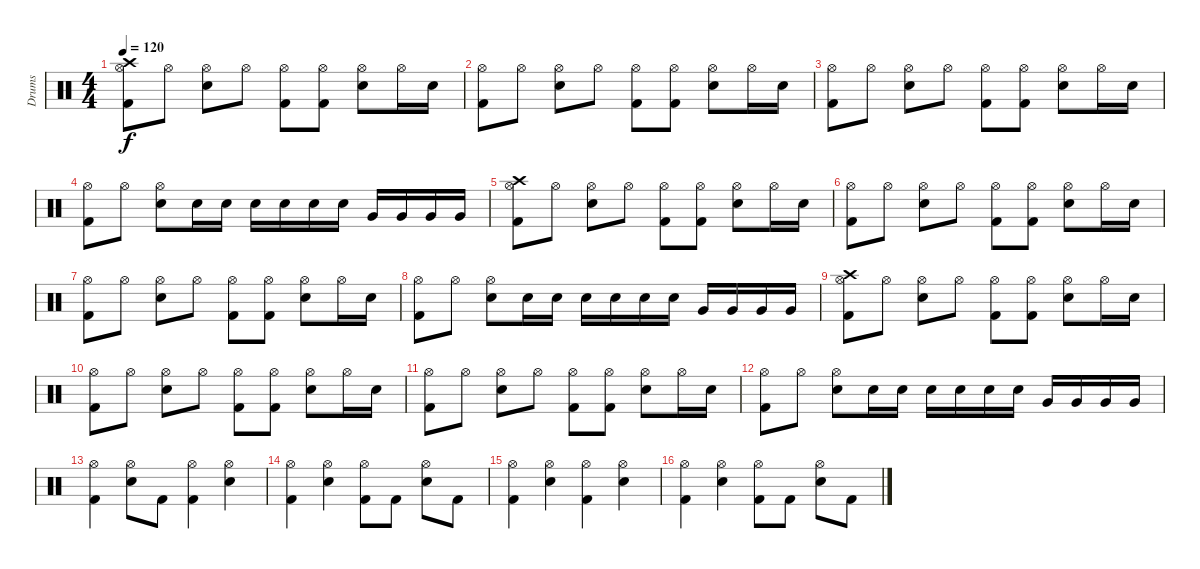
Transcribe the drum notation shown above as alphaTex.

\track ("Drums" "Drums") {instrument percussion}
\staff {score}
\articulation defaults
\ts (4 4)
\tempo 120
\clef neutral
\ks c
("Crash high (hit)" "Hi-Hat (open)" "Kick (hit) 2").8{dy f} "Hi-Hat (open)".8 ("Hi-Hat (open)" "Electric Snare (hit)").8 "Hi-Hat (open)".8 ("Hi-Hat (open)" "Kick (hit) 2").8 ("Hi-Hat (open)" "Kick (hit) 2").8 ("Hi-Hat (open)" "Electric Snare (hit)").8 "Hi-Hat (open)".16 "Electric Snare (hit)".16 |
("Hi-Hat (open)" "Kick (hit) 2").8 "Hi-Hat (open)".8 ("Hi-Hat (open)" "Electric Snare (hit)").8 "Hi-Hat (open)".8 ("Hi-Hat (open)" "Kick (hit) 2").8 ("Hi-Hat (open)" "Kick (hit) 2").8 ("Hi-Hat (open)" "Electric Snare (hit)").8 "Hi-Hat (open)".16 "Electric Snare (hit)".16 |
("Hi-Hat (open)" "Kick (hit) 2").8 "Hi-Hat (open)".8 ("Hi-Hat (open)" "Electric Snare (hit)").8 "Hi-Hat (open)".8 ("Hi-Hat (open)" "Kick (hit) 2").8 ("Hi-Hat (open)" "Kick (hit) 2").8 ("Hi-Hat (open)" "Electric Snare (hit)").8 "Hi-Hat (open)".16 "Electric Snare (hit)".16 |
("Hi-Hat (open)" "Kick (hit) 2").8 "Hi-Hat (open)".8 ("Hi-Hat (open)" "Electric Snare (hit)").8 "Electric Snare (hit)".16 "Electric Snare (hit)".16 "Electric Snare (hit)".16 "Electric Snare (hit)".16 "Electric Snare (hit)".16 "Electric Snare (hit)".16 "Very Low Tom (hit)".16 "Very Low Tom (hit)".16 "Very Low Tom (hit)".16 "Very Low Tom (hit)".16 |
("Crash high (hit)" "Hi-Hat (open)" "Kick (hit) 2").8 "Hi-Hat (open)".8 ("Hi-Hat (open)" "Electric Snare (hit)").8 "Hi-Hat (open)".8 ("Hi-Hat (open)" "Kick (hit) 2").8 ("Hi-Hat (open)" "Kick (hit) 2").8 ("Hi-Hat (open)" "Electric Snare (hit)").8 "Hi-Hat (open)".16 "Electric Snare (hit)".16 |
("Hi-Hat (open)" "Kick (hit) 2").8 "Hi-Hat (open)".8 ("Hi-Hat (open)" "Electric Snare (hit)").8 "Hi-Hat (open)".8 ("Hi-Hat (open)" "Kick (hit) 2").8 ("Hi-Hat (open)" "Kick (hit) 2").8 ("Hi-Hat (open)" "Electric Snare (hit)").8 "Hi-Hat (open)".16 "Electric Snare (hit)".16 |
("Hi-Hat (open)" "Kick (hit) 2").8 "Hi-Hat (open)".8 ("Hi-Hat (open)" "Electric Snare (hit)").8 "Hi-Hat (open)".8 ("Hi-Hat (open)" "Kick (hit) 2").8 ("Hi-Hat (open)" "Kick (hit) 2").8 ("Hi-Hat (open)" "Electric Snare (hit)").8 "Hi-Hat (open)".16 "Electric Snare (hit)".16 |
("Hi-Hat (open)" "Kick (hit) 2").8 "Hi-Hat (open)".8 ("Hi-Hat (open)" "Electric Snare (hit)").8 "Electric Snare (hit)".16 "Electric Snare (hit)".16 "Electric Snare (hit)".16 "Electric Snare (hit)".16 "Electric Snare (hit)".16 "Electric Snare (hit)".16 "Very Low Tom (hit)".16 "Very Low Tom (hit)".16 "Very Low Tom (hit)".16 "Very Low Tom (hit)".16 |
("Crash high (hit)" "Hi-Hat (open)" "Kick (hit) 2").8 "Hi-Hat (open)".8 ("Hi-Hat (open)" "Electric Snare (hit)").8 "Hi-Hat (open)".8 ("Hi-Hat (open)" "Kick (hit) 2").8 ("Hi-Hat (open)" "Kick (hit) 2").8 ("Hi-Hat (open)" "Electric Snare (hit)").8 "Hi-Hat (open)".16 "Electric Snare (hit)".16 |
("Hi-Hat (open)" "Kick (hit) 2").8 "Hi-Hat (open)".8 ("Hi-Hat (open)" "Electric Snare (hit)").8 "Hi-Hat (open)".8 ("Hi-Hat (open)" "Kick (hit) 2").8 ("Hi-Hat (open)" "Kick (hit) 2").8 ("Hi-Hat (open)" "Electric Snare (hit)").8 "Hi-Hat (open)".16 "Electric Snare (hit)".16 |
("Hi-Hat (open)" "Kick (hit) 2").8 "Hi-Hat (open)".8 ("Hi-Hat (open)" "Electric Snare (hit)").8 "Hi-Hat (open)".8 ("Hi-Hat (open)" "Kick (hit) 2").8 ("Hi-Hat (open)" "Kick (hit) 2").8 ("Hi-Hat (open)" "Electric Snare (hit)").8 "Hi-Hat (open)".16 "Electric Snare (hit)".16 |
("Hi-Hat (open)" "Kick (hit) 2").8 "Hi-Hat (open)".8 ("Hi-Hat (open)" "Electric Snare (hit)").8 "Electric Snare (hit)".16 "Electric Snare (hit)".16 "Electric Snare (hit)".16 "Electric Snare (hit)".16 "Electric Snare (hit)".16 "Electric Snare (hit)".16 "Very Low Tom (hit)".16 "Very Low Tom (hit)".16 "Very Low Tom (hit)".16 "Very Low Tom (hit)".16 |
("Hi-Hat (open)" "Kick (hit) 2").4 ("Hi-Hat (open)" "Electric Snare (hit)").8 "Kick (hit) 2".8 ("Hi-Hat (open)" "Kick (hit) 2").4 ("Hi-Hat (open)" "Electric Snare (hit)").4 |
("Hi-Hat (open)" "Kick (hit) 2").4 ("Hi-Hat (open)" "Electric Snare (hit)").4 ("Hi-Hat (open)" "Kick (hit) 2").8 "Kick (hit) 2".8 ("Hi-Hat (open)" "Electric Snare (hit)").8 "Kick (hit) 2".8 |
("Hi-Hat (open)" "Kick (hit) 2").4 ("Hi-Hat (open)" "Electric Snare (hit)").4 ("Hi-Hat (open)" "Kick (hit) 2").4 ("Hi-Hat (open)" "Electric Snare (hit)").4 |
("Hi-Hat (open)" "Kick (hit) 2").4 ("Hi-Hat (open)" "Electric Snare (hit)").4 ("Hi-Hat (open)" "Kick (hit) 2").8 "Kick (hit) 2".8 ("Hi-Hat (open)" "Electric Snare (hit)").8 "Kick (hit) 2".8
